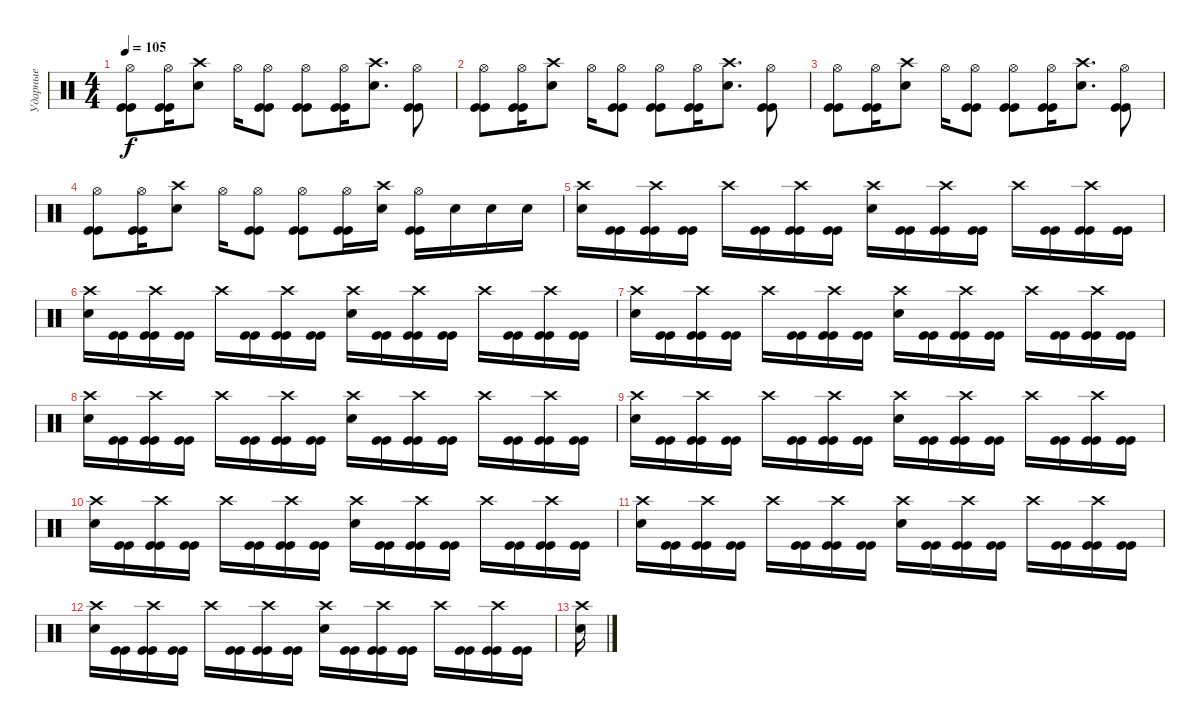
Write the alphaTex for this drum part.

\track ("Ударные" "Ударные") {instrument percussion}
\staff {score}
\articulation defaults
\ts (4 4)
\tempo 105
\clef neutral
\ks c
("Hi-Hat (open)" "Kick (hit)" "Kick (hit)").8{dy f} ("Hi-Hat (open)" "Kick (hit)" "Kick (hit)").16 ("Crash high (hit)" "Electric Snare (hit)").8 "Hi-Hat (open)".16 ("Hi-Hat (open)" "Kick (hit)" "Kick (hit)").8 ("Hi-Hat (open)" "Kick (hit)" "Kick (hit)").8 ("Hi-Hat (open)" "Kick (hit)" "Kick (hit)").16 ("Crash high (hit)" "Electric Snare (hit)").8{d} ("Hi-Hat (open)" "Kick (hit)" "Kick (hit)").8 |
("Hi-Hat (open)" "Kick (hit)" "Kick (hit)").8 ("Hi-Hat (open)" "Kick (hit)" "Kick (hit)").16 ("Crash high (hit)" "Electric Snare (hit)").8 "Hi-Hat (open)".16 ("Hi-Hat (open)" "Kick (hit)" "Kick (hit)").8 ("Hi-Hat (open)" "Kick (hit)" "Kick (hit)").8 ("Hi-Hat (open)" "Kick (hit)" "Kick (hit)").16 ("Crash high (hit)" "Electric Snare (hit)").8{d} ("Hi-Hat (open)" "Kick (hit)" "Kick (hit)").8 |
("Hi-Hat (open)" "Kick (hit)" "Kick (hit)").8 ("Hi-Hat (open)" "Kick (hit)" "Kick (hit)").16 ("Crash high (hit)" "Electric Snare (hit)").8 "Hi-Hat (open)".16 ("Hi-Hat (open)" "Kick (hit)" "Kick (hit)").8 ("Hi-Hat (open)" "Kick (hit)" "Kick (hit)").8 ("Hi-Hat (open)" "Kick (hit)" "Kick (hit)").16 ("Crash high (hit)" "Electric Snare (hit)").8{d} ("Hi-Hat (open)" "Kick (hit)" "Kick (hit)").8 |
("Hi-Hat (open)" "Kick (hit)" "Kick (hit)").8 ("Hi-Hat (open)" "Kick (hit)" "Kick (hit)").16 ("Crash high (hit)" "Electric Snare (hit)").8 "Hi-Hat (open)".16 ("Hi-Hat (open)" "Kick (hit)" "Kick (hit)").8 ("Hi-Hat (open)" "Kick (hit)" "Kick (hit)").8 ("Hi-Hat (open)" "Kick (hit)" "Kick (hit)").16 ("Crash high (hit)" "Electric Snare (hit)").16 ("Hi-Hat (open)" "Kick (hit)" "Kick (hit)").16 "Electric Snare (hit)".16 "Electric Snare (hit)".16 "Electric Snare (hit)".16 |
("Crash high (hit)" "Electric Snare (hit)").16 ("Kick (hit)" "Kick (hit)").16 ("Crash high (hit)" "Kick (hit)" "Kick (hit)").16 ("Kick (hit)" "Kick (hit)").16 "Crash high (hit)".16 ("Kick (hit)" "Kick (hit)").16 ("Crash high (hit)" "Kick (hit)" "Kick (hit)").16 ("Kick (hit)" "Kick (hit)").16 ("Crash high (hit)" "Electric Snare (hit)").16 ("Kick (hit)" "Kick (hit)").16 ("Crash high (hit)" "Kick (hit)" "Kick (hit)").16 ("Kick (hit)" "Kick (hit)").16 "Crash high (hit)".16 ("Kick (hit)" "Kick (hit)").16 ("Crash high (hit)" "Kick (hit)" "Kick (hit)").16 ("Kick (hit)" "Kick (hit)").16 |
("Crash high (hit)" "Electric Snare (hit)").16 ("Kick (hit)" "Kick (hit)").16 ("Crash high (hit)" "Kick (hit)" "Kick (hit)").16 ("Kick (hit)" "Kick (hit)").16 "Crash high (hit)".16 ("Kick (hit)" "Kick (hit)").16 ("Crash high (hit)" "Kick (hit)" "Kick (hit)").16 ("Kick (hit)" "Kick (hit)").16 ("Crash high (hit)" "Electric Snare (hit)").16 ("Kick (hit)" "Kick (hit)").16 ("Crash high (hit)" "Kick (hit)" "Kick (hit)").16 ("Kick (hit)" "Kick (hit)").16 "Crash high (hit)".16 ("Kick (hit)" "Kick (hit)").16 ("Crash high (hit)" "Kick (hit)" "Kick (hit)").16 ("Kick (hit)" "Kick (hit)").16 |
("Crash high (hit)" "Electric Snare (hit)").16 ("Kick (hit)" "Kick (hit)").16 ("Crash high (hit)" "Kick (hit)" "Kick (hit)").16 ("Kick (hit)" "Kick (hit)").16 "Crash high (hit)".16 ("Kick (hit)" "Kick (hit)").16 ("Crash high (hit)" "Kick (hit)" "Kick (hit)").16 ("Kick (hit)" "Kick (hit)").16 ("Crash high (hit)" "Electric Snare (hit)").16 ("Kick (hit)" "Kick (hit)").16 ("Crash high (hit)" "Kick (hit)" "Kick (hit)").16 ("Kick (hit)" "Kick (hit)").16 "Crash high (hit)".16 ("Kick (hit)" "Kick (hit)").16 ("Crash high (hit)" "Kick (hit)" "Kick (hit)").16 ("Kick (hit)" "Kick (hit)").16 |
("Crash high (hit)" "Electric Snare (hit)").16 ("Kick (hit)" "Kick (hit)").16 ("Crash high (hit)" "Kick (hit)" "Kick (hit)").16 ("Kick (hit)" "Kick (hit)").16 "Crash high (hit)".16 ("Kick (hit)" "Kick (hit)").16 ("Crash high (hit)" "Kick (hit)" "Kick (hit)").16 ("Kick (hit)" "Kick (hit)").16 ("Crash high (hit)" "Electric Snare (hit)").16 ("Kick (hit)" "Kick (hit)").16 ("Crash high (hit)" "Kick (hit)" "Kick (hit)").16 ("Kick (hit)" "Kick (hit)").16 "Crash high (hit)".16 ("Kick (hit)" "Kick (hit)").16 ("Crash high (hit)" "Kick (hit)" "Kick (hit)").16 ("Kick (hit)" "Kick (hit)").16 |
("Crash high (hit)" "Electric Snare (hit)").16 ("Kick (hit)" "Kick (hit)").16 ("Crash high (hit)" "Kick (hit)" "Kick (hit)").16 ("Kick (hit)" "Kick (hit)").16 "Crash high (hit)".16 ("Kick (hit)" "Kick (hit)").16 ("Crash high (hit)" "Kick (hit)" "Kick (hit)").16 ("Kick (hit)" "Kick (hit)").16 ("Crash high (hit)" "Electric Snare (hit)").16 ("Kick (hit)" "Kick (hit)").16 ("Crash high (hit)" "Kick (hit)" "Kick (hit)").16 ("Kick (hit)" "Kick (hit)").16 "Crash high (hit)".16 ("Kick (hit)" "Kick (hit)").16 ("Crash high (hit)" "Kick (hit)" "Kick (hit)").16 ("Kick (hit)" "Kick (hit)").16 |
("Crash high (hit)" "Electric Snare (hit)").16 ("Kick (hit)" "Kick (hit)").16 ("Crash high (hit)" "Kick (hit)" "Kick (hit)").16 ("Kick (hit)" "Kick (hit)").16 "Crash high (hit)".16 ("Kick (hit)" "Kick (hit)").16 ("Crash high (hit)" "Kick (hit)" "Kick (hit)").16 ("Kick (hit)" "Kick (hit)").16 ("Crash high (hit)" "Electric Snare (hit)").16 ("Kick (hit)" "Kick (hit)").16 ("Crash high (hit)" "Kick (hit)" "Kick (hit)").16 ("Kick (hit)" "Kick (hit)").16 "Crash high (hit)".16 ("Kick (hit)" "Kick (hit)").16 ("Crash high (hit)" "Kick (hit)" "Kick (hit)").16 ("Kick (hit)" "Kick (hit)").16 |
("Crash high (hit)" "Electric Snare (hit)").16 ("Kick (hit)" "Kick (hit)").16 ("Crash high (hit)" "Kick (hit)" "Kick (hit)").16 ("Kick (hit)" "Kick (hit)").16 "Crash high (hit)".16 ("Kick (hit)" "Kick (hit)").16 ("Crash high (hit)" "Kick (hit)" "Kick (hit)").16 ("Kick (hit)" "Kick (hit)").16 ("Crash high (hit)" "Electric Snare (hit)").16 ("Kick (hit)" "Kick (hit)").16 ("Crash high (hit)" "Kick (hit)" "Kick (hit)").16 ("Kick (hit)" "Kick (hit)").16 "Crash high (hit)".16 ("Kick (hit)" "Kick (hit)").16 ("Crash high (hit)" "Kick (hit)" "Kick (hit)").16 ("Kick (hit)" "Kick (hit)").16 |
("Crash high (hit)" "Electric Snare (hit)").16 ("Kick (hit)" "Kick (hit)").16 ("Crash high (hit)" "Kick (hit)" "Kick (hit)").16 ("Kick (hit)" "Kick (hit)").16 "Crash high (hit)".16 ("Kick (hit)" "Kick (hit)").16 ("Crash high (hit)" "Kick (hit)" "Kick (hit)").16 ("Kick (hit)" "Kick (hit)").16 ("Crash high (hit)" "Electric Snare (hit)").16 ("Kick (hit)" "Kick (hit)").16 ("Crash high (hit)" "Kick (hit)" "Kick (hit)").16 ("Kick (hit)" "Kick (hit)").16 "Crash high (hit)".16 ("Kick (hit)" "Kick (hit)").16 ("Crash high (hit)" "Kick (hit)" "Kick (hit)").16 ("Kick (hit)" "Kick (hit)").16 |
("Crash high (hit)" "Electric Snare (hit)").16
